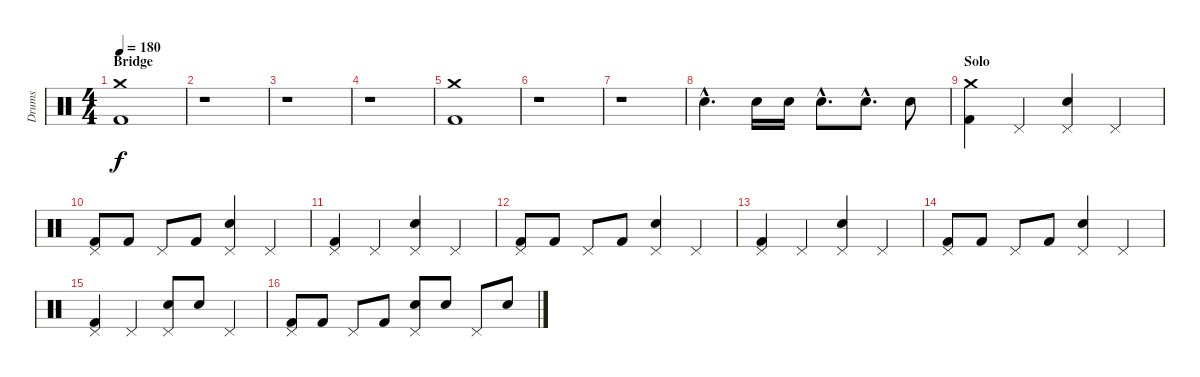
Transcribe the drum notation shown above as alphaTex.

\track ("Drums" "Drums") {instrument percussion}
\staff {score}
\articulation defaults
\ts (4 4)
\section ("" "Bridge")
\tempo 180
\clef neutral
\ks c
("Crash medium (hit)" "Kick (hit) 2").1{dy f} |
r.1 |
r.1 |
r.1 |
("Crash medium (hit)" "Kick (hit) 2").1 |
r.1 |
r.1 |
"Electric Snare (hit)"{hac}.4{d} "Electric Snare (hit)".16 "Electric Snare (hit)".16 "Electric Snare (hit)"{hac}.8{d} "Electric Snare (hit)"{hac}.8{d} "Electric Snare (hit)".8 |
\section ("" "Solo")
("Crash medium (hit)" "Kick (hit) 2").4 "Pedal Hi-Hat (hit)".4 ("Pedal Hi-Hat (hit)" "Electric Snare (hit)").4 "Pedal Hi-Hat (hit)".4 |
("Pedal Hi-Hat (hit)" "Kick (hit) 2").8 "Kick (hit) 2".8 "Pedal Hi-Hat (hit)".8 "Kick (hit) 2".8 ("Pedal Hi-Hat (hit)" "Electric Snare (hit)").4 "Pedal Hi-Hat (hit)".4 |
("Pedal Hi-Hat (hit)" "Kick (hit) 2").4 "Pedal Hi-Hat (hit)".4 ("Pedal Hi-Hat (hit)" "Electric Snare (hit)").4 "Pedal Hi-Hat (hit)".4 |
("Pedal Hi-Hat (hit)" "Kick (hit) 2").8 "Kick (hit) 2".8 "Pedal Hi-Hat (hit)".8 "Kick (hit) 2".8 ("Pedal Hi-Hat (hit)" "Electric Snare (hit)").4 "Pedal Hi-Hat (hit)".4 |
("Pedal Hi-Hat (hit)" "Kick (hit) 2").4 "Pedal Hi-Hat (hit)".4 ("Pedal Hi-Hat (hit)" "Electric Snare (hit)").4 "Pedal Hi-Hat (hit)".4 |
("Pedal Hi-Hat (hit)" "Kick (hit) 2").8 "Kick (hit) 2".8 "Pedal Hi-Hat (hit)".8 "Kick (hit) 2".8 ("Pedal Hi-Hat (hit)" "Electric Snare (hit)").4 "Pedal Hi-Hat (hit)".4 |
("Pedal Hi-Hat (hit)" "Kick (hit) 2").4 "Pedal Hi-Hat (hit)".4 ("Pedal Hi-Hat (hit)" "Electric Snare (hit)").8 "Electric Snare (hit)".8 "Pedal Hi-Hat (hit)".4 |
("Pedal Hi-Hat (hit)" "Kick (hit) 2").8 "Kick (hit) 2".8 "Pedal Hi-Hat (hit)".8 "Kick (hit) 2".8 ("Pedal Hi-Hat (hit)" "Electric Snare (hit)").8 "Electric Snare (hit)".8 "Pedal Hi-Hat (hit)".8 "Electric Snare (hit)".8
